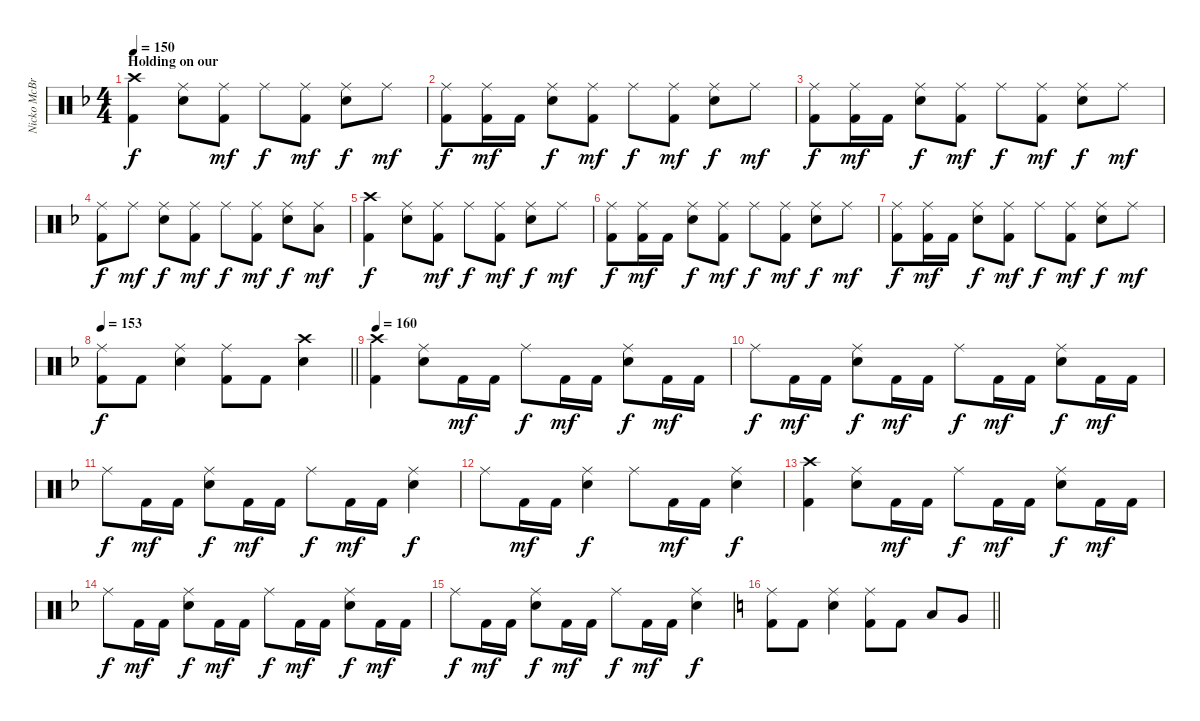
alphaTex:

\track ("Nicko McBrain" "Nicko McBr") {instrument percussion}
\staff {score}
\articulation defaults
\ts (4 4)
\section ("" "Holding on our")
\tempo 150
\clef neutral
\ks f
("Crash high (hit)" "Kick (hit) 2").4{dy f} ("Ride (middle)" "Electric Snare (hit)").8 ("Ride (middle)" "Kick (hit) 2").8{dy mf} "Ride (middle)".8{dy f} ("Ride (middle)" "Kick (hit) 2").8{dy mf} ("Ride (middle)" "Electric Snare (hit)").8{dy f} "Ride (middle)".8{dy mf} |
("Ride (middle)" "Kick (hit) 2").8{dy f} ("Ride (middle)" "Kick (hit) 2").16{dy mf} "Kick (hit) 2".16 ("Ride (middle)" "Electric Snare (hit)").8{dy f} ("Ride (middle)" "Kick (hit) 2").8{dy mf} "Ride (middle)".8{dy f} ("Ride (middle)" "Kick (hit) 2").8{dy mf} ("Ride (middle)" "Electric Snare (hit)").8{dy f} "Ride (middle)".8{dy mf} |
("Ride (middle)" "Kick (hit) 2").8{dy f} ("Ride (middle)" "Kick (hit) 2").16{dy mf} "Kick (hit) 2".16 ("Ride (middle)" "Electric Snare (hit)").8{dy f} ("Ride (middle)" "Kick (hit) 2").8{dy mf} "Ride (middle)".8{dy f} ("Ride (middle)" "Kick (hit) 2").8{dy mf} ("Ride (middle)" "Electric Snare (hit)").8{dy f} "Ride (middle)".8{dy mf} |
("Ride (middle)" "Kick (hit) 2").8{dy f} "Ride (middle)".8{dy mf} ("Ride (middle)" "Electric Snare (hit)").8{dy f} ("Ride (middle)" "Kick (hit) 2").8{dy mf} "Ride (middle)".8{dy f} ("Ride (middle)" "Kick (hit) 2").8{dy mf} ("Ride (middle)" "Electric Snare (hit)").8{dy f} ("Ride (middle)" "Low Tom (hit)").8{dy mf} |
("Crash high (hit)" "Kick (hit) 2").4{dy f} ("Ride (middle)" "Electric Snare (hit)").8 ("Ride (middle)" "Kick (hit) 2").8{dy mf} "Ride (middle)".8{dy f} ("Ride (middle)" "Kick (hit) 2").8{dy mf} ("Ride (middle)" "Electric Snare (hit)").8{dy f} "Ride (middle)".8{dy mf} |
("Ride (middle)" "Kick (hit) 2").8{dy f} ("Ride (middle)" "Kick (hit) 2").16{dy mf} "Kick (hit) 2".16 ("Ride (middle)" "Electric Snare (hit)").8{dy f} ("Ride (middle)" "Kick (hit) 2").8{dy mf} "Ride (middle)".8{dy f} ("Ride (middle)" "Kick (hit) 2").8{dy mf} ("Ride (middle)" "Electric Snare (hit)").8{dy f} "Ride (middle)".8{dy mf} |
("Ride (middle)" "Kick (hit) 2").8{dy f} ("Ride (middle)" "Kick (hit) 2").16{dy mf} "Kick (hit) 2".16 ("Ride (middle)" "Electric Snare (hit)").8{dy f} ("Ride (middle)" "Kick (hit) 2").8{dy mf} "Ride (middle)".8{dy f} ("Ride (middle)" "Kick (hit) 2").8{dy mf} ("Ride (middle)" "Electric Snare (hit)").8{dy f} "Ride (middle)".8{dy mf} |
\tempo 153
\barLineRight lightlight
("Ride (middle)" "Kick (hit) 2").8{dy f} "Kick (hit) 2".8 ("Ride (middle)" "Electric Snare (hit)").4 ("Ride (middle)" "Kick (hit) 2").8 "Kick (hit) 2".8 ("Crash high (hit)" "Electric Snare (hit)").4 |
\tempo 160
("Crash high (hit)" "Kick (hit) 2").4 ("Ride (middle)" "Electric Snare (hit)").8 "Kick (hit) 2".16{dy mf} "Kick (hit) 2".16 "Ride (middle)".8{dy f} "Kick (hit) 2".16{dy mf} "Kick (hit) 2".16 ("Ride (middle)" "Electric Snare (hit)").8{dy f} "Kick (hit) 2".16{dy mf} "Kick (hit) 2".16 |
"Ride (middle)".8{dy f} "Kick (hit) 2".16{dy mf} "Kick (hit) 2".16 ("Ride (middle)" "Electric Snare (hit)").8{dy f} "Kick (hit) 2".16{dy mf} "Kick (hit) 2".16 "Ride (middle)".8{dy f} "Kick (hit) 2".16{dy mf} "Kick (hit) 2".16 ("Ride (middle)" "Electric Snare (hit)").8{dy f} "Kick (hit) 2".16{dy mf} "Kick (hit) 2".16 |
"Ride (middle)".8{dy f} "Kick (hit) 2".16{dy mf} "Kick (hit) 2".16 ("Ride (middle)" "Electric Snare (hit)").8{dy f} "Kick (hit) 2".16{dy mf} "Kick (hit) 2".16 "Ride (middle)".8{dy f} "Kick (hit) 2".16{dy mf} "Kick (hit) 2".16 ("Ride (middle)" "Electric Snare (hit)").4{dy f} |
"Ride (middle)".8 "Kick (hit) 2".16{dy mf} "Kick (hit) 2".16 ("Ride (middle)" "Electric Snare (hit)").4{dy f} "Ride (middle)".8 "Kick (hit) 2".16{dy mf} "Kick (hit) 2".16 ("Ride (middle)" "Electric Snare (hit)").4{dy f} |
("Crash high (hit)" "Kick (hit) 2").4 ("Ride (middle)" "Electric Snare (hit)").8 "Kick (hit) 2".16{dy mf} "Kick (hit) 2".16 "Ride (middle)".8{dy f} "Kick (hit) 2".16{dy mf} "Kick (hit) 2".16 ("Ride (middle)" "Electric Snare (hit)").8{dy f} "Kick (hit) 2".16{dy mf} "Kick (hit) 2".16 |
"Ride (middle)".8{dy f} "Kick (hit) 2".16{dy mf} "Kick (hit) 2".16 ("Ride (middle)" "Electric Snare (hit)").8{dy f} "Kick (hit) 2".16{dy mf} "Kick (hit) 2".16 "Ride (middle)".8{dy f} "Kick (hit) 2".16{dy mf} "Kick (hit) 2".16 ("Ride (middle)" "Electric Snare (hit)").8{dy f} "Kick (hit) 2".16{dy mf} "Kick (hit) 2".16 |
"Ride (middle)".8{dy f} "Kick (hit) 2".16{dy mf} "Kick (hit) 2".16 ("Ride (middle)" "Electric Snare (hit)").8{dy f} "Kick (hit) 2".16{dy mf} "Kick (hit) 2".16 "Ride (middle)".8{dy f} "Kick (hit) 2".16{dy mf} "Kick (hit) 2".16 ("Ride (middle)" "Electric Snare (hit)").4{dy f} |
\barLineRight lightlight
\ks c
("Ride (middle)" "Kick (hit) 2").8 "Kick (hit) 2".8 ("Ride (middle)" "Electric Snare (hit)").4 ("Ride (middle)" "Kick (hit) 2").8 "Kick (hit) 2".8 "Low Tom (hit)".8 "Very Low Tom (hit)".8
